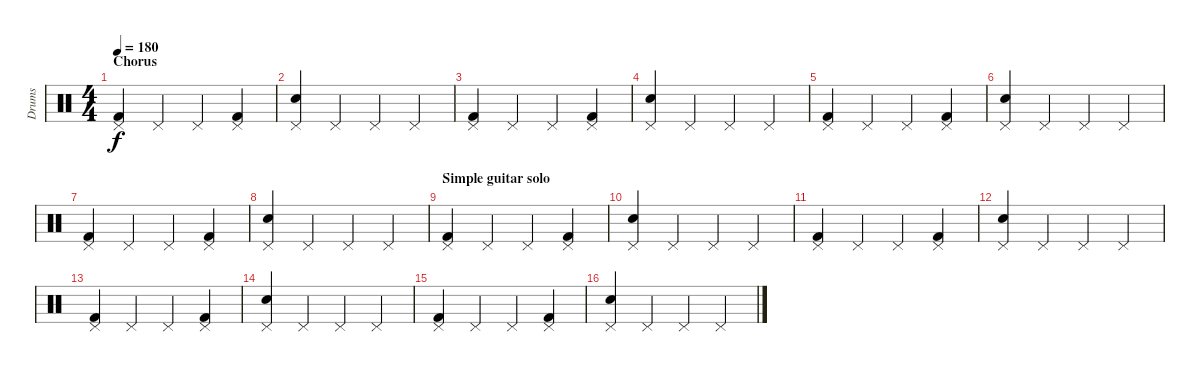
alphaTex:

\track ("Drums" "Drums") {instrument percussion}
\staff {score}
\articulation defaults
\ts (4 4)
\section ("" "Chorus")
\tempo 180
\clef neutral
\ks c
("Kick (hit) 2" "Pedal Hi-Hat (hit)").4{dy f} "Pedal Hi-Hat (hit)".4 "Pedal Hi-Hat (hit)".4 ("Kick (hit) 2" "Pedal Hi-Hat (hit)").4 |
("Electric Snare (hit)" "Pedal Hi-Hat (hit)").4 "Pedal Hi-Hat (hit)".4 "Pedal Hi-Hat (hit)".4 "Pedal Hi-Hat (hit)".4 |
("Kick (hit) 2" "Pedal Hi-Hat (hit)").4 "Pedal Hi-Hat (hit)".4 "Pedal Hi-Hat (hit)".4 ("Kick (hit) 2" "Pedal Hi-Hat (hit)").4 |
("Electric Snare (hit)" "Pedal Hi-Hat (hit)").4 "Pedal Hi-Hat (hit)".4 "Pedal Hi-Hat (hit)".4 "Pedal Hi-Hat (hit)".4 |
("Kick (hit) 2" "Pedal Hi-Hat (hit)").4 "Pedal Hi-Hat (hit)".4 "Pedal Hi-Hat (hit)".4 ("Kick (hit) 2" "Pedal Hi-Hat (hit)").4 |
("Electric Snare (hit)" "Pedal Hi-Hat (hit)").4 "Pedal Hi-Hat (hit)".4 "Pedal Hi-Hat (hit)".4 "Pedal Hi-Hat (hit)".4 |
("Kick (hit) 2" "Pedal Hi-Hat (hit)").4 "Pedal Hi-Hat (hit)".4 "Pedal Hi-Hat (hit)".4 ("Kick (hit) 2" "Pedal Hi-Hat (hit)").4 |
("Electric Snare (hit)" "Pedal Hi-Hat (hit)").4 "Pedal Hi-Hat (hit)".4 "Pedal Hi-Hat (hit)".4 "Pedal Hi-Hat (hit)".4 |
\section ("" "Simple guitar solo")
("Kick (hit) 2" "Pedal Hi-Hat (hit)").4 "Pedal Hi-Hat (hit)".4 "Pedal Hi-Hat (hit)".4 ("Kick (hit) 2" "Pedal Hi-Hat (hit)").4 |
("Electric Snare (hit)" "Pedal Hi-Hat (hit)").4 "Pedal Hi-Hat (hit)".4 "Pedal Hi-Hat (hit)".4 "Pedal Hi-Hat (hit)".4 |
("Kick (hit) 2" "Pedal Hi-Hat (hit)").4 "Pedal Hi-Hat (hit)".4 "Pedal Hi-Hat (hit)".4 ("Kick (hit) 2" "Pedal Hi-Hat (hit)").4 |
("Electric Snare (hit)" "Pedal Hi-Hat (hit)").4 "Pedal Hi-Hat (hit)".4 "Pedal Hi-Hat (hit)".4 "Pedal Hi-Hat (hit)".4 |
("Kick (hit) 2" "Pedal Hi-Hat (hit)").4 "Pedal Hi-Hat (hit)".4 "Pedal Hi-Hat (hit)".4 ("Kick (hit) 2" "Pedal Hi-Hat (hit)").4 |
("Electric Snare (hit)" "Pedal Hi-Hat (hit)").4 "Pedal Hi-Hat (hit)".4 "Pedal Hi-Hat (hit)".4 "Pedal Hi-Hat (hit)".4 |
("Kick (hit) 2" "Pedal Hi-Hat (hit)").4 "Pedal Hi-Hat (hit)".4 "Pedal Hi-Hat (hit)".4 ("Kick (hit) 2" "Pedal Hi-Hat (hit)").4 |
("Electric Snare (hit)" "Pedal Hi-Hat (hit)").4 "Pedal Hi-Hat (hit)".4 "Pedal Hi-Hat (hit)".4 "Pedal Hi-Hat (hit)".4
